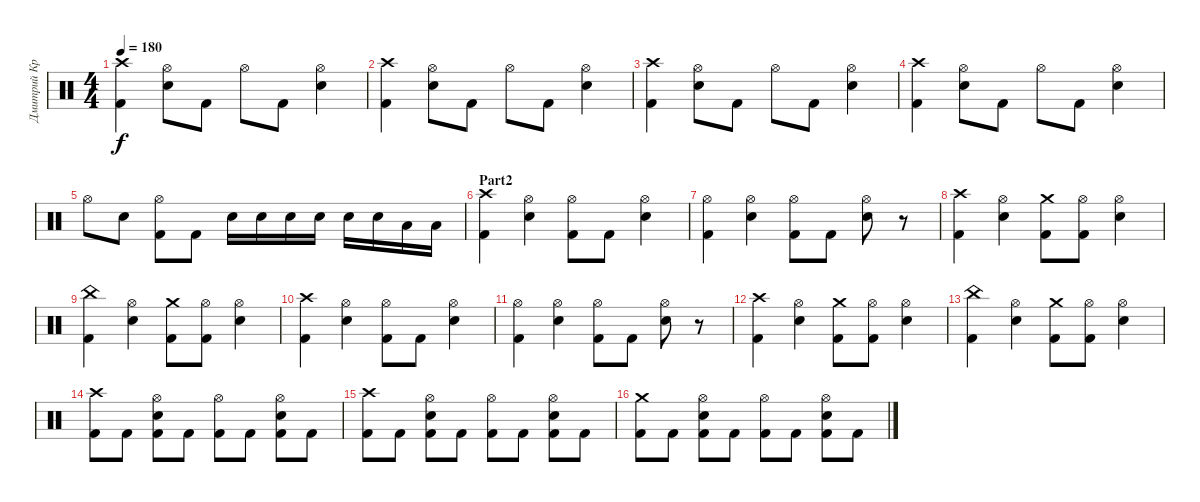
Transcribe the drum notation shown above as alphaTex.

\track ("Дмитрий Кривенков" "Дмитрий Кр") {instrument percussion}
\staff {score}
\articulation defaults
\ts (4 4)
\tempo 180
\clef neutral
\ks c
("Kick (hit) 2" "Crash high (hit)").4{dy f} ("Electric Snare (hit)" "Hi-Hat (open)").8 "Kick (hit) 2".8 "Hi-Hat (open)".8 "Kick (hit) 2".8 ("Electric Snare (hit)" "Hi-Hat (open)").4 |
("Kick (hit) 2" "Crash high (hit)").4 ("Electric Snare (hit)" "Hi-Hat (open)").8 "Kick (hit) 2".8 "Hi-Hat (open)".8 "Kick (hit) 2".8 ("Electric Snare (hit)" "Hi-Hat (open)").4 |
("Kick (hit) 2" "Crash high (hit)").4 ("Electric Snare (hit)" "Hi-Hat (open)").8 "Kick (hit) 2".8 "Hi-Hat (open)".8 "Kick (hit) 2".8 ("Electric Snare (hit)" "Hi-Hat (open)").4 |
("Kick (hit) 2" "Crash high (hit)").4 ("Electric Snare (hit)" "Hi-Hat (open)").8 "Kick (hit) 2".8 "Hi-Hat (open)".8 "Kick (hit) 2".8 ("Electric Snare (hit)" "Hi-Hat (open)").4 |
"Hi-Hat (open)".8 "Electric Snare (hit)".8 ("Hi-Hat (open)" "Kick (hit) 2").8 "Kick (hit) 2".8 "Snare (hit) 2".16 "Snare (hit) 2".16 "Snare (hit) 2".16 "Snare (hit) 2".16 "Snare (hit) 2".16 "Electric Snare (hit)".16 "Low Tom (hit)".16 "Low Tom (hit)".16 |
\section ("" "Part2")
("Kick (hit) 2" "Crash high (hit)").4 ("Hi-Hat (open)" "Electric Snare (hit)").4 ("Kick (hit) 2" "Hi-Hat (open)").8 "Kick (hit) 2".8 ("Electric Snare (hit)" "Hi-Hat (open)").4 |
("Kick (hit) 2" "Hi-Hat (open)").4 ("Hi-Hat (open)" "Electric Snare (hit)").4 ("Kick (hit) 2" "Hi-Hat (open)").8 "Kick (hit) 2".8 ("Hi-Hat (open)" "Electric Snare (hit)").8 r.8 |
("Crash high (hit)" "Kick (hit) 2").4 ("Hi-Hat (open)" "Electric Snare (hit)").4 ("Kick (hit) 2" "Crash medium (hit)").8 ("Kick (hit) 2" "Hi-Hat (open)").8 ("Electric Snare (hit)" "Hi-Hat (open)").4 |
("Kick (hit) 2" "China (hit)").4 ("Hi-Hat (open)" "Electric Snare (hit)").4 ("Kick (hit) 2" "Crash medium (hit)").8 ("Hi-Hat (open)" "Kick (hit) 2").8 ("Electric Snare (hit)" "Hi-Hat (open)").4 |
("Kick (hit) 2" "Crash high (hit)").4 ("Hi-Hat (open)" "Electric Snare (hit)").4 ("Kick (hit) 2" "Hi-Hat (open)").8 "Kick (hit) 2".8 ("Electric Snare (hit)" "Hi-Hat (open)").4 |
("Kick (hit) 2" "Hi-Hat (open)").4 ("Hi-Hat (open)" "Electric Snare (hit)").4 ("Kick (hit) 2" "Hi-Hat (open)").8 "Kick (hit) 2".8 ("Hi-Hat (open)" "Electric Snare (hit)").8 r.8 |
("Crash high (hit)" "Kick (hit) 2").4 ("Hi-Hat (open)" "Electric Snare (hit)").4 ("Kick (hit) 2" "Crash medium (hit)").8 ("Kick (hit) 2" "Hi-Hat (open)").8 ("Electric Snare (hit)" "Hi-Hat (open)").4 |
("Kick (hit) 2" "China (hit)").4 ("Hi-Hat (open)" "Electric Snare (hit)").4 ("Kick (hit) 2" "Crash medium (hit)").8 ("Hi-Hat (open)" "Kick (hit) 2").8 ("Electric Snare (hit)" "Hi-Hat (open)").4 |
("Kick (hit) 2" "Crash high (hit)").8 "Kick (hit) 2".8 ("Hi-Hat (open)" "Electric Snare (hit)" "Kick (hit) 2").8 "Kick (hit) 2".8 ("Hi-Hat (open)" "Kick (hit) 2").8 "Kick (hit) 2".8 ("Kick (hit) 2" "Electric Snare (hit)" "Hi-Hat (open)").8 "Kick (hit) 2".8 |
("Kick (hit) 2" "Crash high (hit)").8 "Kick (hit) 2".8 ("Hi-Hat (open)" "Electric Snare (hit)" "Kick (hit) 2").8 "Kick (hit) 2".8 ("Hi-Hat (open)" "Kick (hit) 2").8 "Kick (hit) 2".8 ("Kick (hit) 2" "Electric Snare (hit)" "Hi-Hat (open)").8 "Kick (hit) 2".8 |
("Kick (hit) 2" "Crash medium (hit)").8 "Kick (hit) 2".8 ("Hi-Hat (open)" "Electric Snare (hit)" "Kick (hit) 2").8 "Kick (hit) 2".8 ("Hi-Hat (open)" "Kick (hit) 2").8 "Kick (hit) 2".8 ("Kick (hit) 2" "Electric Snare (hit)" "Hi-Hat (open)").8 "Kick (hit) 2".8
